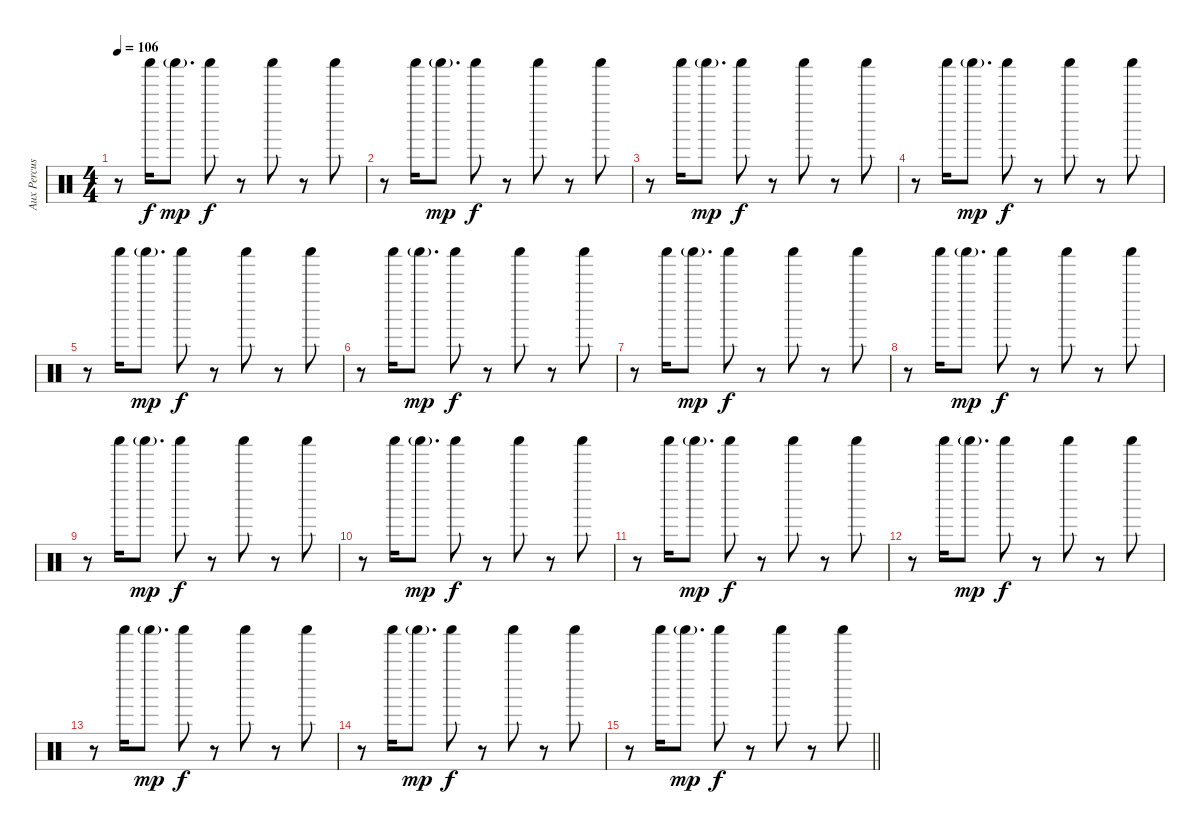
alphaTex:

\track ("Aux Percussion" "Aux Percus") {instrument percussion}
\staff {score}
\articulation defaults
\ts (4 4)
\tempo 106
\clef neutral
\ks c
r.8{dy f} "Shaker (hit)".16 "Shaker (hit)"{g}.8{d dy mp} "Shaker (hit)".8{dy f} r.8 "Shaker (hit)".8 r.8 "Shaker (hit)".8 |
r.8 "Shaker (hit)".16 "Shaker (hit)"{g}.8{d dy mp} "Shaker (hit)".8{dy f} r.8 "Shaker (hit)".8 r.8 "Shaker (hit)".8 |
r.8 "Shaker (hit)".16 "Shaker (hit)"{g}.8{d dy mp} "Shaker (hit)".8{dy f} r.8 "Shaker (hit)".8 r.8 "Shaker (hit)".8 |
r.8 "Shaker (hit)".16 "Shaker (hit)"{g}.8{d dy mp} "Shaker (hit)".8{dy f} r.8 "Shaker (hit)".8 r.8 "Shaker (hit)".8 |
r.8 "Shaker (hit)".16 "Shaker (hit)"{g}.8{d dy mp} "Shaker (hit)".8{dy f} r.8 "Shaker (hit)".8 r.8 "Shaker (hit)".8 |
r.8 "Shaker (hit)".16 "Shaker (hit)"{g}.8{d dy mp} "Shaker (hit)".8{dy f} r.8 "Shaker (hit)".8 r.8 "Shaker (hit)".8 |
r.8 "Shaker (hit)".16 "Shaker (hit)"{g}.8{d dy mp} "Shaker (hit)".8{dy f} r.8 "Shaker (hit)".8 r.8 "Shaker (hit)".8 |
r.8 "Shaker (hit)".16 "Shaker (hit)"{g}.8{d dy mp} "Shaker (hit)".8{dy f} r.8 "Shaker (hit)".8 r.8 "Shaker (hit)".8 |
r.8 "Shaker (hit)".16 "Shaker (hit)"{g}.8{d dy mp} "Shaker (hit)".8{dy f} r.8 "Shaker (hit)".8 r.8 "Shaker (hit)".8 |
r.8 "Shaker (hit)".16 "Shaker (hit)"{g}.8{d dy mp} "Shaker (hit)".8{dy f} r.8 "Shaker (hit)".8 r.8 "Shaker (hit)".8 |
r.8 "Shaker (hit)".16 "Shaker (hit)"{g}.8{d dy mp} "Shaker (hit)".8{dy f} r.8 "Shaker (hit)".8 r.8 "Shaker (hit)".8 |
r.8 "Shaker (hit)".16 "Shaker (hit)"{g}.8{d dy mp} "Shaker (hit)".8{dy f} r.8 "Shaker (hit)".8 r.8 "Shaker (hit)".8 |
r.8 "Shaker (hit)".16 "Shaker (hit)"{g}.8{d dy mp} "Shaker (hit)".8{dy f} r.8 "Shaker (hit)".8 r.8 "Shaker (hit)".8 |
r.8 "Shaker (hit)".16 "Shaker (hit)"{g}.8{d dy mp} "Shaker (hit)".8{dy f} r.8 "Shaker (hit)".8 r.8 "Shaker (hit)".8 |
\barLineRight lightlight
r.8 "Shaker (hit)".16 "Shaker (hit)"{g}.8{d dy mp} "Shaker (hit)".8{dy f} r.8 "Shaker (hit)".8 r.8 "Shaker (hit)".8
